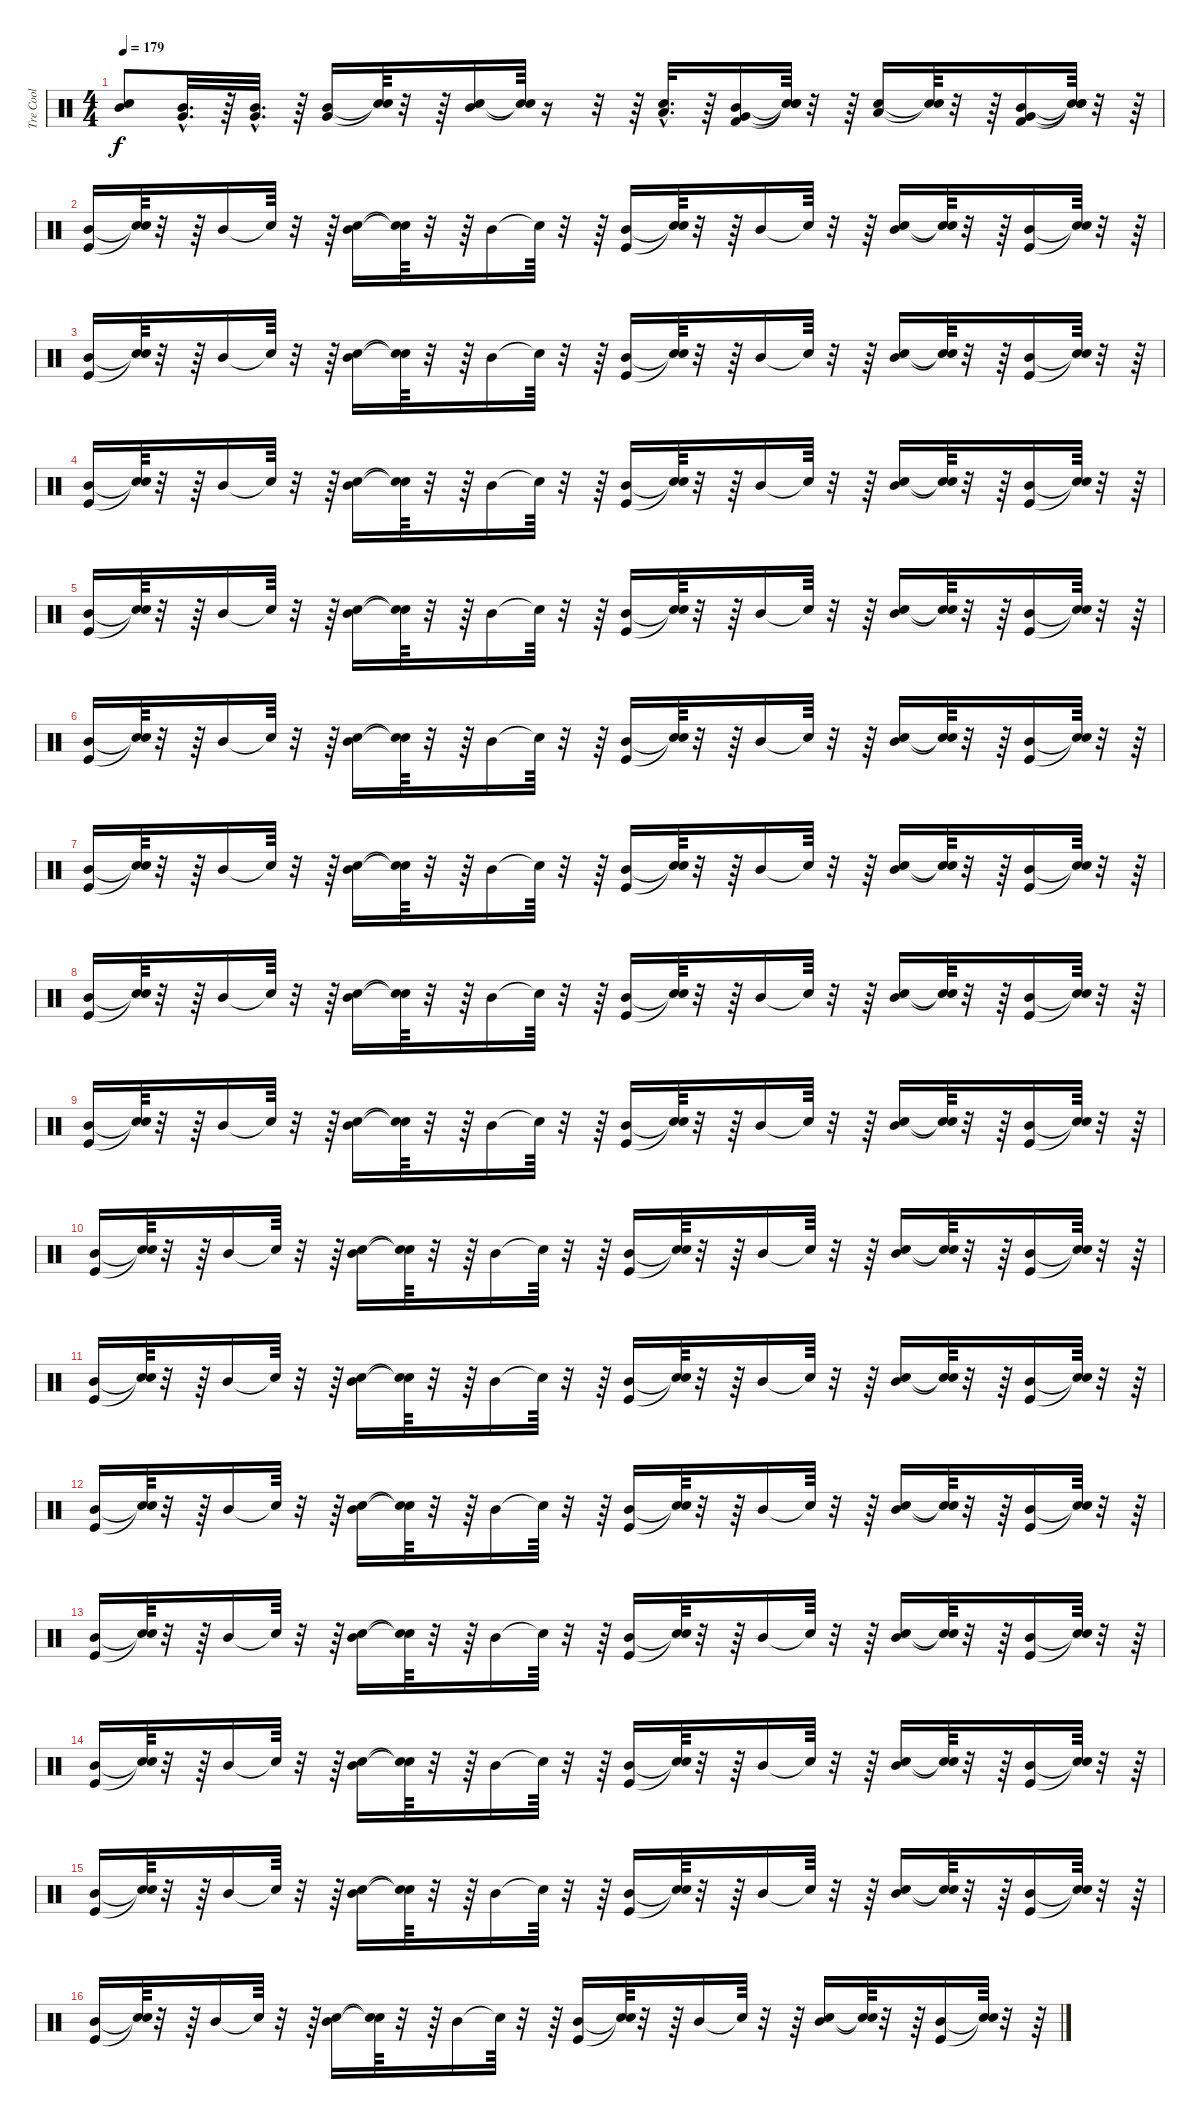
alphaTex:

\track ("Tre Cool" "Tre Cool") {instrument percussion}
\staff {score}
\articulation defaults
\ts (4 4)
\tempo 179
\clef neutral
\ks c
("Mid Tom (hit)" "Snare (hit) 2").8{dy f} ("Mid Tom (hit)"{hac} "Very Low Tom (hit)"{hac}).32{d} r.64 ("Very Low Tom (hit)"{hac} "Mid Tom (hit)"{hac}).32{d} r.64 ("Mid Tom (hit)" "Very Low Tom (hit)").16 ("Snare (hit)"{t} "Snare (hit)"{t}).64 r.32 r.64 ("Mid Tom (hit)" "Snare (hit) 2").16 ("Snare (hit)"{t} "Snare (hit)"{t}).64 r.16 r.32 r.64 ("Low Tom (hit)"{hac} "Snare (hit) 2"{hac}).32{d} r.64 ("Mid Tom (hit)" "Very Low Tom (hit)" "Kick (hit) 2").16 ("Snare (hit)"{t} "Snare (hit)"{t} "Snare (hit)"{t}).64 r.32 r.64 ("Low Tom (hit)" "Snare (hit) 2").16 ("Snare (hit)"{t} "Snare (hit)"{t}).64 r.32 r.64 ("Mid Tom (hit)" "Very Low Tom (hit)" "Kick (hit) 2").16 ("Snare (hit)"{t} "Snare (hit)"{t} "Snare (hit)"{t}).64 r.32 r.64 |
("Mid Tom (hit)" "Kick (hit)").16 ("Snare (hit)"{t} "Snare (hit)"{t}).64 r.32 r.64 "Mid Tom (hit)".16 "Snare (hit)"{t}.64 r.32 r.64 ("Mid Tom (hit)" "Snare (hit) 2").16 ("Snare (hit)"{t} "Snare (hit)"{t}).64 r.32 r.64 "Mid Tom (hit)".16 "Snare (hit)"{t}.64 r.32 r.64 ("Mid Tom (hit)" "Kick (hit)").16 ("Snare (hit)"{t} "Snare (hit)"{t}).64 r.32 r.64 "Mid Tom (hit)".16 "Snare (hit)"{t}.64 r.32 r.64 ("Mid Tom (hit)" "Snare (hit) 2").16 ("Snare (hit)"{t} "Snare (hit)"{t}).64 r.32 r.64 ("Mid Tom (hit)" "Kick (hit)").16 ("Snare (hit)"{t} "Snare (hit)"{t}).64 r.32 r.64 |
("Mid Tom (hit)" "Kick (hit)").16 ("Snare (hit)"{t} "Snare (hit)"{t}).64 r.32 r.64 "Mid Tom (hit)".16 "Snare (hit)"{t}.64 r.32 r.64 ("Mid Tom (hit)" "Snare (hit) 2").16 ("Snare (hit)"{t} "Snare (hit)"{t}).64 r.32 r.64 "Mid Tom (hit)".16 "Snare (hit)"{t}.64 r.32 r.64 ("Mid Tom (hit)" "Kick (hit)").16 ("Snare (hit)"{t} "Snare (hit)"{t}).64 r.32 r.64 "Mid Tom (hit)".16 "Snare (hit)"{t}.64 r.32 r.64 ("Mid Tom (hit)" "Snare (hit) 2").16 ("Snare (hit)"{t} "Snare (hit)"{t}).64 r.32 r.64 ("Mid Tom (hit)" "Kick (hit)").16 ("Snare (hit)"{t} "Snare (hit)"{t}).64 r.32 r.64 |
("Mid Tom (hit)" "Kick (hit)").16 ("Snare (hit)"{t} "Snare (hit)"{t}).64 r.32 r.64 "Mid Tom (hit)".16 "Snare (hit)"{t}.64 r.32 r.64 ("Mid Tom (hit)" "Snare (hit) 2").16 ("Snare (hit)"{t} "Snare (hit)"{t}).64 r.32 r.64 "Mid Tom (hit)".16 "Snare (hit)"{t}.64 r.32 r.64 ("Mid Tom (hit)" "Kick (hit)").16 ("Snare (hit)"{t} "Snare (hit)"{t}).64 r.32 r.64 "Mid Tom (hit)".16 "Snare (hit)"{t}.64 r.32 r.64 ("Mid Tom (hit)" "Snare (hit) 2").16 ("Snare (hit)"{t} "Snare (hit)"{t}).64 r.32 r.64 ("Mid Tom (hit)" "Kick (hit)").16 ("Snare (hit)"{t} "Snare (hit)"{t}).64 r.32 r.64 |
("Mid Tom (hit)" "Kick (hit)").16 ("Snare (hit)"{t} "Snare (hit)"{t}).64 r.32 r.64 "Mid Tom (hit)".16 "Snare (hit)"{t}.64 r.32 r.64 ("Mid Tom (hit)" "Snare (hit) 2").16 ("Snare (hit)"{t} "Snare (hit)"{t}).64 r.32 r.64 "Mid Tom (hit)".16 "Snare (hit)"{t}.64 r.32 r.64 ("Mid Tom (hit)" "Kick (hit)").16 ("Snare (hit)"{t} "Snare (hit)"{t}).64 r.32 r.64 "Mid Tom (hit)".16 "Snare (hit)"{t}.64 r.32 r.64 ("Mid Tom (hit)" "Snare (hit) 2").16 ("Snare (hit)"{t} "Snare (hit)"{t}).64 r.32 r.64 ("Mid Tom (hit)" "Kick (hit)").16 ("Snare (hit)"{t} "Snare (hit)"{t}).64 r.32 r.64 |
("Mid Tom (hit)" "Kick (hit)").16 ("Snare (hit)"{t} "Snare (hit)"{t}).64 r.32 r.64 "Mid Tom (hit)".16 "Snare (hit)"{t}.64 r.32 r.64 ("Mid Tom (hit)" "Snare (hit) 2").16 ("Snare (hit)"{t} "Snare (hit)"{t}).64 r.32 r.64 "Mid Tom (hit)".16 "Snare (hit)"{t}.64 r.32 r.64 ("Mid Tom (hit)" "Kick (hit)").16 ("Snare (hit)"{t} "Snare (hit)"{t}).64 r.32 r.64 "Mid Tom (hit)".16 "Snare (hit)"{t}.64 r.32 r.64 ("Mid Tom (hit)" "Snare (hit) 2").16 ("Snare (hit)"{t} "Snare (hit)"{t}).64 r.32 r.64 ("Mid Tom (hit)" "Kick (hit)").16 ("Snare (hit)"{t} "Snare (hit)"{t}).64 r.32 r.64 |
("Mid Tom (hit)" "Kick (hit)").16 ("Snare (hit)"{t} "Snare (hit)"{t}).64 r.32 r.64 "Mid Tom (hit)".16 "Snare (hit)"{t}.64 r.32 r.64 ("Mid Tom (hit)" "Snare (hit) 2").16 ("Snare (hit)"{t} "Snare (hit)"{t}).64 r.32 r.64 "Mid Tom (hit)".16 "Snare (hit)"{t}.64 r.32 r.64 ("Mid Tom (hit)" "Kick (hit)").16 ("Snare (hit)"{t} "Snare (hit)"{t}).64 r.32 r.64 "Mid Tom (hit)".16 "Snare (hit)"{t}.64 r.32 r.64 ("Mid Tom (hit)" "Snare (hit) 2").16 ("Snare (hit)"{t} "Snare (hit)"{t}).64 r.32 r.64 ("Mid Tom (hit)" "Kick (hit)").16 ("Snare (hit)"{t} "Snare (hit)"{t}).64 r.32 r.64 |
("Mid Tom (hit)" "Kick (hit)").16 ("Snare (hit)"{t} "Snare (hit)"{t}).64 r.32 r.64 "Mid Tom (hit)".16 "Snare (hit)"{t}.64 r.32 r.64 ("Mid Tom (hit)" "Snare (hit) 2").16 ("Snare (hit)"{t} "Snare (hit)"{t}).64 r.32 r.64 "Mid Tom (hit)".16 "Snare (hit)"{t}.64 r.32 r.64 ("Mid Tom (hit)" "Kick (hit)").16 ("Snare (hit)"{t} "Snare (hit)"{t}).64 r.32 r.64 "Mid Tom (hit)".16 "Snare (hit)"{t}.64 r.32 r.64 ("Mid Tom (hit)" "Snare (hit) 2").16 ("Snare (hit)"{t} "Snare (hit)"{t}).64 r.32 r.64 ("Mid Tom (hit)" "Kick (hit)").16 ("Snare (hit)"{t} "Snare (hit)"{t}).64 r.32 r.64 |
("Mid Tom (hit)" "Kick (hit)").16 ("Snare (hit)"{t} "Snare (hit)"{t}).64 r.32 r.64 "Mid Tom (hit)".16 "Snare (hit)"{t}.64 r.32 r.64 ("Mid Tom (hit)" "Snare (hit) 2").16 ("Snare (hit)"{t} "Snare (hit)"{t}).64 r.32 r.64 "Mid Tom (hit)".16 "Snare (hit)"{t}.64 r.32 r.64 ("Mid Tom (hit)" "Kick (hit)").16 ("Snare (hit)"{t} "Snare (hit)"{t}).64 r.32 r.64 "Mid Tom (hit)".16 "Snare (hit)"{t}.64 r.32 r.64 ("Mid Tom (hit)" "Snare (hit) 2").16 ("Snare (hit)"{t} "Snare (hit)"{t}).64 r.32 r.64 ("Mid Tom (hit)" "Kick (hit)").16 ("Snare (hit)"{t} "Snare (hit)"{t}).64 r.32 r.64 |
("Mid Tom (hit)" "Kick (hit)").16 ("Snare (hit)"{t} "Snare (hit)"{t}).64 r.32 r.64 "Mid Tom (hit)".16 "Snare (hit)"{t}.64 r.32 r.64 ("Mid Tom (hit)" "Snare (hit) 2").16 ("Snare (hit)"{t} "Snare (hit)"{t}).64 r.32 r.64 "Mid Tom (hit)".16 "Snare (hit)"{t}.64 r.32 r.64 ("Mid Tom (hit)" "Kick (hit)").16 ("Snare (hit)"{t} "Snare (hit)"{t}).64 r.32 r.64 "Mid Tom (hit)".16 "Snare (hit)"{t}.64 r.32 r.64 ("Mid Tom (hit)" "Snare (hit) 2").16 ("Snare (hit)"{t} "Snare (hit)"{t}).64 r.32 r.64 ("Mid Tom (hit)" "Kick (hit)").16 ("Snare (hit)"{t} "Snare (hit)"{t}).64 r.32 r.64 |
("Mid Tom (hit)" "Kick (hit)").16 ("Snare (hit)"{t} "Snare (hit)"{t}).64 r.32 r.64 "Mid Tom (hit)".16 "Snare (hit)"{t}.64 r.32 r.64 ("Mid Tom (hit)" "Snare (hit) 2").16 ("Snare (hit)"{t} "Snare (hit)"{t}).64 r.32 r.64 "Mid Tom (hit)".16 "Snare (hit)"{t}.64 r.32 r.64 ("Mid Tom (hit)" "Kick (hit)").16 ("Snare (hit)"{t} "Snare (hit)"{t}).64 r.32 r.64 "Mid Tom (hit)".16 "Snare (hit)"{t}.64 r.32 r.64 ("Mid Tom (hit)" "Snare (hit) 2").16 ("Snare (hit)"{t} "Snare (hit)"{t}).64 r.32 r.64 ("Mid Tom (hit)" "Kick (hit)").16 ("Snare (hit)"{t} "Snare (hit)"{t}).64 r.32 r.64 |
("Mid Tom (hit)" "Kick (hit)").16 ("Snare (hit)"{t} "Snare (hit)"{t}).64 r.32 r.64 "Mid Tom (hit)".16 "Snare (hit)"{t}.64 r.32 r.64 ("Mid Tom (hit)" "Snare (hit) 2").16 ("Snare (hit)"{t} "Snare (hit)"{t}).64 r.32 r.64 "Mid Tom (hit)".16 "Snare (hit)"{t}.64 r.32 r.64 ("Mid Tom (hit)" "Kick (hit)").16 ("Snare (hit)"{t} "Snare (hit)"{t}).64 r.32 r.64 "Mid Tom (hit)".16 "Snare (hit)"{t}.64 r.32 r.64 ("Mid Tom (hit)" "Snare (hit) 2").16 ("Snare (hit)"{t} "Snare (hit)"{t}).64 r.32 r.64 ("Mid Tom (hit)" "Kick (hit)").16 ("Snare (hit)"{t} "Snare (hit)"{t}).64 r.32 r.64 |
("Mid Tom (hit)" "Kick (hit)").16 ("Snare (hit)"{t} "Snare (hit)"{t}).64 r.32 r.64 "Mid Tom (hit)".16 "Snare (hit)"{t}.64 r.32 r.64 ("Mid Tom (hit)" "Snare (hit) 2").16 ("Snare (hit)"{t} "Snare (hit)"{t}).64 r.32 r.64 "Mid Tom (hit)".16 "Snare (hit)"{t}.64 r.32 r.64 ("Mid Tom (hit)" "Kick (hit)").16 ("Snare (hit)"{t} "Snare (hit)"{t}).64 r.32 r.64 "Mid Tom (hit)".16 "Snare (hit)"{t}.64 r.32 r.64 ("Mid Tom (hit)" "Snare (hit) 2").16 ("Snare (hit)"{t} "Snare (hit)"{t}).64 r.32 r.64 ("Mid Tom (hit)" "Kick (hit)").16 ("Snare (hit)"{t} "Snare (hit)"{t}).64 r.32 r.64 |
("Mid Tom (hit)" "Kick (hit)").16 ("Snare (hit)"{t} "Snare (hit)"{t}).64 r.32 r.64 "Mid Tom (hit)".16 "Snare (hit)"{t}.64 r.32 r.64 ("Mid Tom (hit)" "Snare (hit) 2").16 ("Snare (hit)"{t} "Snare (hit)"{t}).64 r.32 r.64 "Mid Tom (hit)".16 "Snare (hit)"{t}.64 r.32 r.64 ("Mid Tom (hit)" "Kick (hit)").16 ("Snare (hit)"{t} "Snare (hit)"{t}).64 r.32 r.64 "Mid Tom (hit)".16 "Snare (hit)"{t}.64 r.32 r.64 ("Mid Tom (hit)" "Snare (hit) 2").16 ("Snare (hit)"{t} "Snare (hit)"{t}).64 r.32 r.64 ("Mid Tom (hit)" "Kick (hit)").16 ("Snare (hit)"{t} "Snare (hit)"{t}).64 r.32 r.64 |
("Mid Tom (hit)" "Kick (hit)").16 ("Snare (hit)"{t} "Snare (hit)"{t}).64 r.32 r.64 "Mid Tom (hit)".16 "Snare (hit)"{t}.64 r.32 r.64 ("Mid Tom (hit)" "Snare (hit) 2").16 ("Snare (hit)"{t} "Snare (hit)"{t}).64 r.32 r.64 "Mid Tom (hit)".16 "Snare (hit)"{t}.64 r.32 r.64 ("Mid Tom (hit)" "Kick (hit)").16 ("Snare (hit)"{t} "Snare (hit)"{t}).64 r.32 r.64 "Mid Tom (hit)".16 "Snare (hit)"{t}.64 r.32 r.64 ("Mid Tom (hit)" "Snare (hit) 2").16 ("Snare (hit)"{t} "Snare (hit)"{t}).64 r.32 r.64 ("Mid Tom (hit)" "Kick (hit)").16 ("Snare (hit)"{t} "Snare (hit)"{t}).64 r.32 r.64 |
("Mid Tom (hit)" "Kick (hit)").16 ("Snare (hit)"{t} "Snare (hit)"{t}).64 r.32 r.64 "Mid Tom (hit)".16 "Snare (hit)"{t}.64 r.32 r.64 ("Mid Tom (hit)" "Snare (hit) 2").16 ("Snare (hit)"{t} "Snare (hit)"{t}).64 r.32 r.64 "Mid Tom (hit)".16 "Snare (hit)"{t}.64 r.32 r.64 ("Mid Tom (hit)" "Kick (hit)").16 ("Snare (hit)"{t} "Snare (hit)"{t}).64 r.32 r.64 "Mid Tom (hit)".16 "Snare (hit)"{t}.64 r.32 r.64 ("Mid Tom (hit)" "Snare (hit) 2").16 ("Snare (hit)"{t} "Snare (hit)"{t}).64 r.32 r.64 ("Mid Tom (hit)" "Kick (hit)").16 ("Snare (hit)"{t} "Snare (hit)"{t}).64 r.32 r.64
